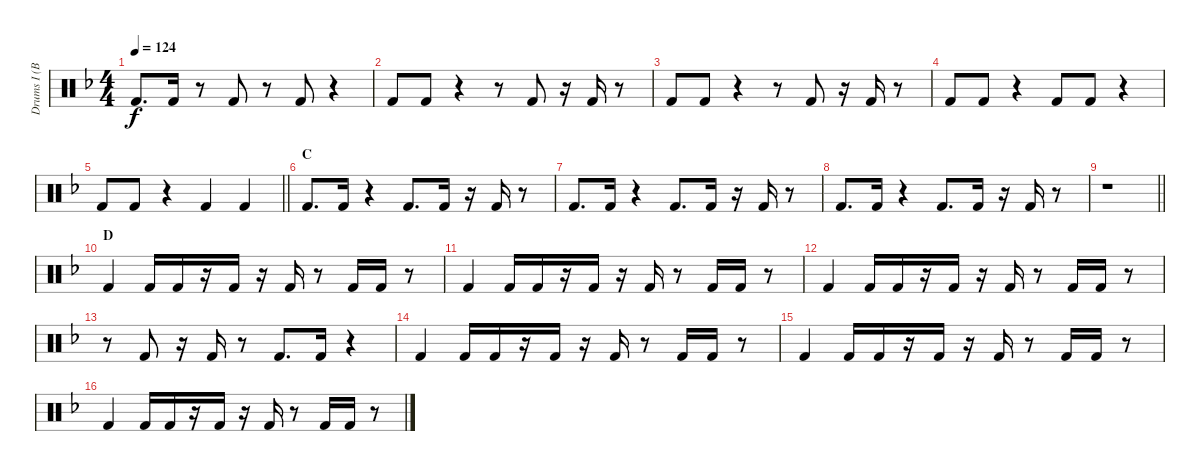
\track ("Drums I (Bass Drums) (RUKA)" "Drums I (B") {instrument percussion}
\staff {score}
\articulation defaults
\ts (4 4)
\tempo 124
\clef neutral
\ks f "Kick (hit) 2".8{d dy f} "Kick (hit) 2".16
r.8 "Kick (hit) 2".8 r.8 "Kick (hit) 2".8 r.4 |
"Kick (hit) 2".8 "Kick (hit) 2".8 r.4 r.8 "Kick (hit) 2".8 r.16 "Kick (hit) 2".16 r.8 |
"Kick (hit) 2".8 "Kick (hit) 2".8 r.4 r.8 "Kick (hit) 2".8 r.16 "Kick (hit) 2".16 r.8 |
"Kick (hit) 2".8 "Kick (hit) 2".8 r.4 "Kick (hit) 2".8 "Kick (hit) 2".8 r.4 |
\barLineRight lightlight "Kick (hit) 2".8 "Kick (hit) 2".8
r.4 "Kick (hit) 2".4 "Kick (hit) 2".4 |
\section ("" "C")
"Kick (hit) 2".8{d} "Kick (hit) 2".16 r.4 "Kick (hit) 2".8{d} "Kick (hit) 2".16 r.16 "Kick (hit) 2".16 r.8 |
"Kick (hit) 2".8{d} "Kick (hit) 2".16 r.4 "Kick (hit) 2".8{d} "Kick (hit) 2".16 r.16 "Kick (hit) 2".16 r.8 |
"Kick (hit) 2".8{d} "Kick (hit) 2".16 r.4 "Kick (hit) 2".8{d} "Kick (hit) 2".16 r.16 "Kick (hit) 2".16 r.8 |
\barLineRight lightlight
r.1 |
\section ("" "D")
"Kick (hit) 2".4 "Kick (hit) 2".16 "Kick (hit) 2".16 r.16 "Kick (hit) 2".16 r.16 "Kick (hit) 2".16 r.8 "Kick (hit) 2".16 "Kick (hit) 2".16 r.8 |
"Kick (hit) 2".4 "Kick (hit) 2".16 "Kick (hit) 2".16 r.16 "Kick (hit) 2".16 r.16 "Kick (hit) 2".16 r.8 "Kick (hit) 2".16 "Kick (hit) 2".16 r.8 |
"Kick (hit) 2".4 "Kick (hit) 2".16 "Kick (hit) 2".16 r.16 "Kick (hit) 2".16 r.16 "Kick (hit) 2".16 r.8 "Kick (hit) 2".16 "Kick (hit) 2".16 r.8 |
r.8 "Kick (hit) 2".8 r.16 "Kick (hit) 2".16 r.8 "Kick (hit) 2".8{d} "Kick (hit) 2".16 r.4 |
"Kick (hit) 2".4 "Kick (hit) 2".16 "Kick (hit) 2".16 r.16 "Kick (hit) 2".16 r.16 "Kick (hit) 2".16 r.8 "Kick (hit) 2".16 "Kick (hit) 2".16 r.8 |
"Kick (hit) 2".4 "Kick (hit) 2".16 "Kick (hit) 2".16 r.16 "Kick (hit) 2".16 r.16 "Kick (hit) 2".16 r.8 "Kick (hit) 2".16 "Kick (hit) 2".16 r.8 |
"Kick (hit) 2".4 "Kick (hit) 2".16 "Kick (hit) 2".16 r.16 "Kick (hit) 2".16 r.16 "Kick (hit) 2".16 r.8 "Kick (hit) 2".16 "Kick (hit) 2".16 r.8
